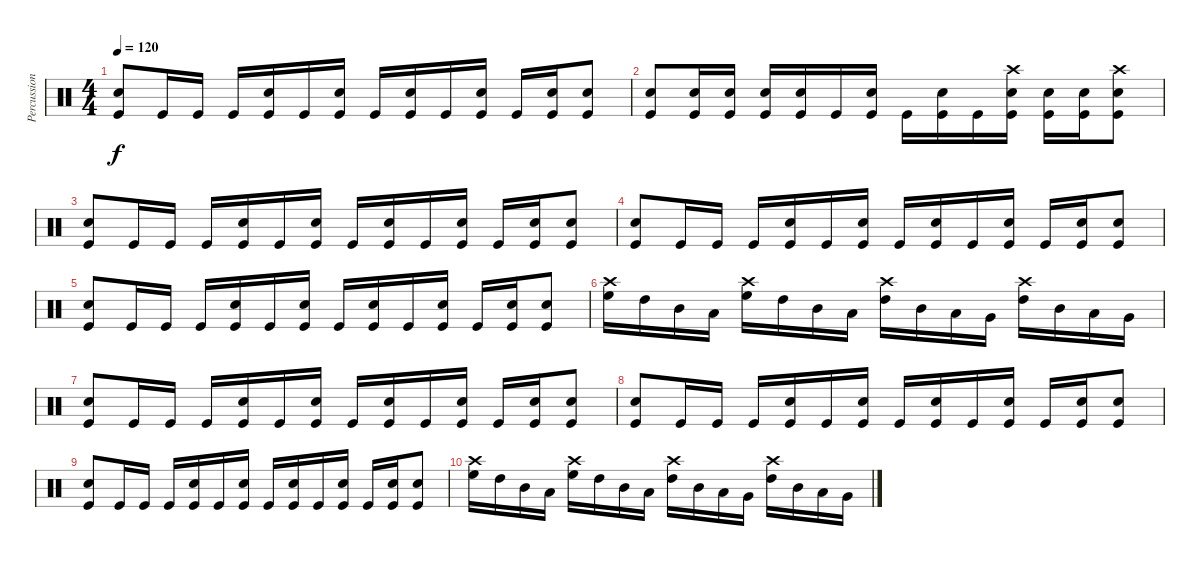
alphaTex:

\track ("Percussion" "Percussion") {instrument percussion}
\staff {score}
\articulation defaults
\ts (4 4)
\tempo 120
\clef neutral
\ks c
("Kick (hit)" "Snare (hit) 2").8{dy f} "Kick (hit)".16 "Kick (hit)".16 "Kick (hit)".16 ("Kick (hit)" "Snare (hit) 2").16 "Kick (hit)".16 ("Kick (hit)" "Snare (hit) 2").16 "Kick (hit)".16 ("Kick (hit)" "Snare (hit) 2").16 "Kick (hit)".16 ("Kick (hit)" "Snare (hit) 2").16 "Kick (hit)".16 ("Kick (hit)" "Snare (hit) 2").16 ("Kick (hit)" "Snare (hit) 2").8 |
("Kick (hit)" "Snare (hit) 2").8 ("Kick (hit)" "Snare (hit) 2").16 ("Kick (hit)" "Snare (hit) 2").16 ("Kick (hit)" "Snare (hit) 2").16 ("Kick (hit)" "Snare (hit) 2").16 "Kick (hit)".16 ("Kick (hit)" "Snare (hit) 2").16 "Kick (hit)".16 ("Kick (hit)" "Snare (hit) 2").16 "Kick (hit)".16 ("Kick (hit)" "Snare (hit) 2" "Crash high (hit)").16 ("Kick (hit)" "Snare (hit) 2").16 ("Kick (hit)" "Snare (hit) 2").16 ("Kick (hit)" "Snare (hit) 2" "Crash high (hit)").8 |
("Kick (hit)" "Snare (hit) 2").8 "Kick (hit)".16 "Kick (hit)".16 "Kick (hit)".16 ("Kick (hit)" "Snare (hit) 2").16 "Kick (hit)".16 ("Kick (hit)" "Snare (hit) 2").16 "Kick (hit)".16 ("Kick (hit)" "Snare (hit) 2").16 "Kick (hit)".16 ("Kick (hit)" "Snare (hit) 2").16 "Kick (hit)".16 ("Kick (hit)" "Snare (hit) 2").16 ("Kick (hit)" "Snare (hit) 2").8 |
("Kick (hit)" "Snare (hit) 2").8 "Kick (hit)".16 "Kick (hit)".16 "Kick (hit)".16 ("Kick (hit)" "Snare (hit) 2").16 "Kick (hit)".16 ("Kick (hit)" "Snare (hit) 2").16 "Kick (hit)".16 ("Kick (hit)" "Snare (hit) 2").16 "Kick (hit)".16 ("Kick (hit)" "Snare (hit) 2").16 "Kick (hit)".16 ("Kick (hit)" "Snare (hit) 2").16 ("Kick (hit)" "Snare (hit) 2").8 |
("Kick (hit)" "Snare (hit) 2").8 "Kick (hit)".16 "Kick (hit)".16 "Kick (hit)".16 ("Kick (hit)" "Snare (hit) 2").16 "Kick (hit)".16 ("Kick (hit)" "Snare (hit) 2").16 "Kick (hit)".16 ("Kick (hit)" "Snare (hit) 2").16 "Kick (hit)".16 ("Kick (hit)" "Snare (hit) 2").16 "Kick (hit)".16 ("Kick (hit)" "Snare (hit) 2").16 ("Kick (hit)" "Snare (hit) 2").8 |
("High Floor Tom (hit)" "Crash high (hit)").16 "High Tom (hit)".16 "Mid Tom (hit)".16 "Low Tom (hit)".16 ("High Floor Tom (hit)" "Crash high (hit)").16 "High Tom (hit)".16 "Mid Tom (hit)".16 "Low Tom (hit)".16 ("High Tom (hit)" "Crash high (hit)").16 "Mid Tom (hit)".16 "Low Tom (hit)".16 "Very Low Tom (hit)".16 ("High Tom (hit)" "Crash high (hit)").16 "Mid Tom (hit)".16 "Low Tom (hit)".16 "Very Low Tom (hit)".16 |
("Kick (hit)" "Snare (hit) 2").8 "Kick (hit)".16 "Kick (hit)".16 "Kick (hit)".16 ("Kick (hit)" "Snare (hit) 2").16 "Kick (hit)".16 ("Kick (hit)" "Snare (hit) 2").16 "Kick (hit)".16 ("Kick (hit)" "Snare (hit) 2").16 "Kick (hit)".16 ("Kick (hit)" "Snare (hit) 2").16 "Kick (hit)".16 ("Kick (hit)" "Snare (hit) 2").16 ("Kick (hit)" "Snare (hit) 2").8 |
("Kick (hit)" "Snare (hit) 2").8 "Kick (hit)".16 "Kick (hit)".16 "Kick (hit)".16 ("Kick (hit)" "Snare (hit) 2").16 "Kick (hit)".16 ("Kick (hit)" "Snare (hit) 2").16 "Kick (hit)".16 ("Kick (hit)" "Snare (hit) 2").16 "Kick (hit)".16 ("Kick (hit)" "Snare (hit) 2").16 "Kick (hit)".16 ("Kick (hit)" "Snare (hit) 2").16 ("Kick (hit)" "Snare (hit) 2").8 |
("Kick (hit)" "Snare (hit) 2").8 "Kick (hit)".16 "Kick (hit)".16 "Kick (hit)".16 ("Kick (hit)" "Snare (hit) 2").16 "Kick (hit)".16 ("Kick (hit)" "Snare (hit) 2").16 "Kick (hit)".16 ("Kick (hit)" "Snare (hit) 2").16 "Kick (hit)".16 ("Kick (hit)" "Snare (hit) 2").16 "Kick (hit)".16 ("Kick (hit)" "Snare (hit) 2").16 ("Kick (hit)" "Snare (hit) 2").8 |
("High Floor Tom (hit)" "Crash high (hit)").16 "High Tom (hit)".16 "Mid Tom (hit)".16 "Low Tom (hit)".16 ("High Floor Tom (hit)" "Crash high (hit)").16 "High Tom (hit)".16 "Mid Tom (hit)".16 "Low Tom (hit)".16 ("High Tom (hit)" "Crash high (hit)").16 "Mid Tom (hit)".16 "Low Tom (hit)".16 "Very Low Tom (hit)".16 ("High Tom (hit)" "Crash high (hit)").16 "Mid Tom (hit)".16 "Low Tom (hit)".16 "Very Low Tom (hit)".16
